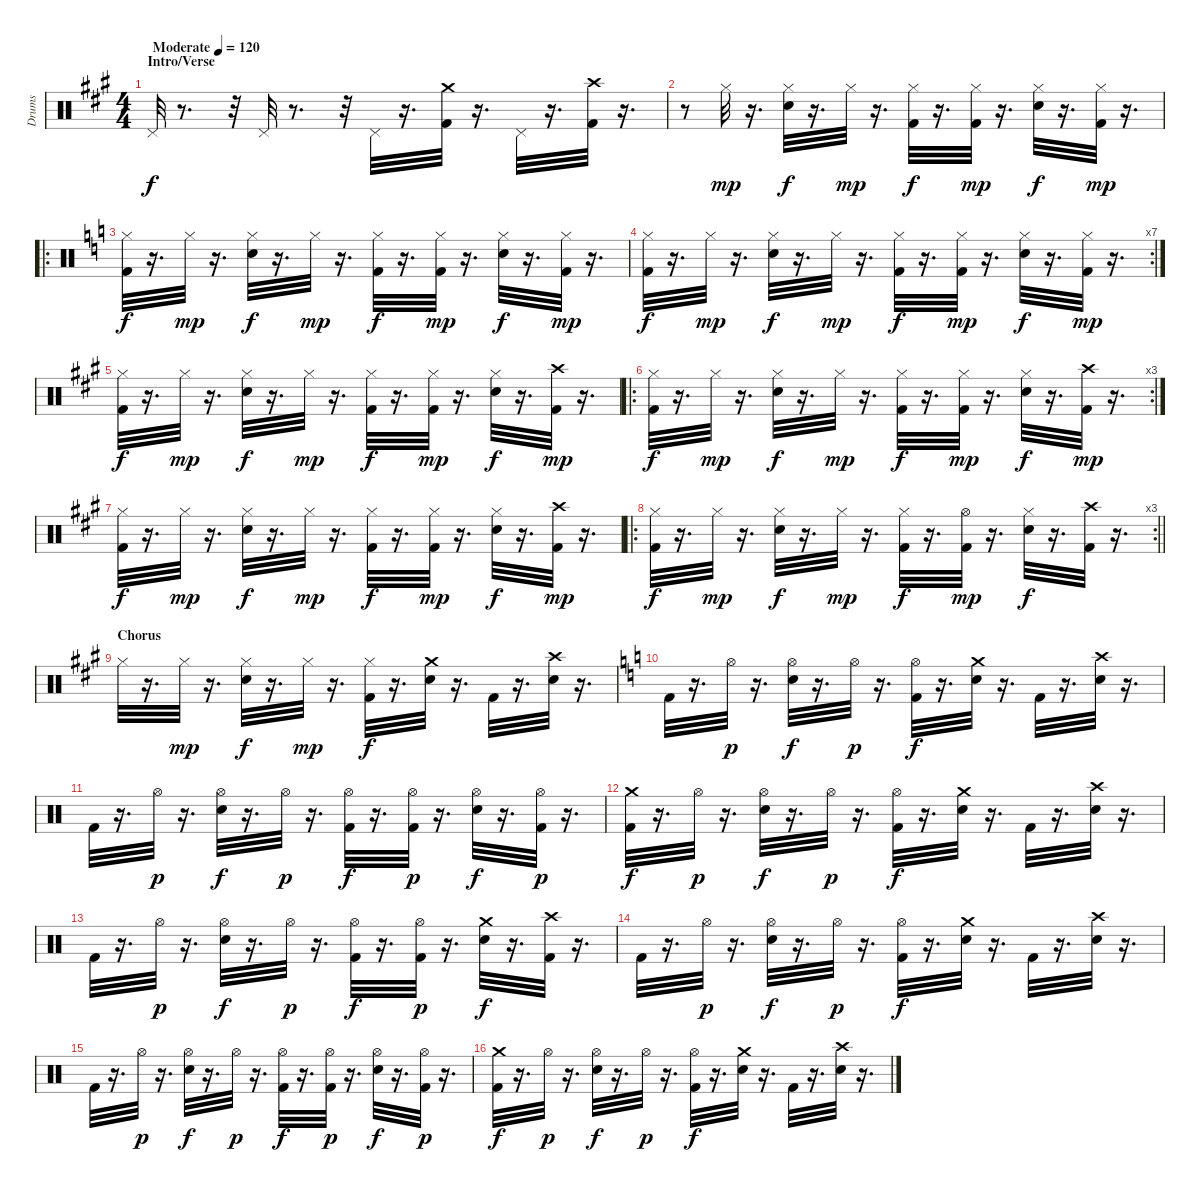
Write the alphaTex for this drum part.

\track ("Drums" "Drums") {instrument percussion}
\staff {score}
\articulation defaults
\ts (4 4)
\section ("" "Intro/Verse")
\tempo (120 "Moderate")
\clef neutral
\ks a "Pedal Hi-Hat (hit)".32{dy f}
r.8{d} r.32 "Pedal Hi-Hat (hit)".32 r.8{d} r.32 "Pedal Hi-Hat (hit)".32 r.16{d} ("Crash medium (hit)" "Kick (hit) 2").32 r.16{d} "Pedal Hi-Hat (hit)".32 r.16{d} ("Crash high (hit)" "Kick (hit) 2").32 r.16{d} |
r.8 "Hi-Hat (closed)".32{dy mp} r.16{d} ("Hi-Hat (closed)" "Electric Snare (hit)").32{dy f} r.16{d} "Hi-Hat (closed)".32{dy mp} r.16{d} ("Hi-Hat (closed)" "Kick (hit) 2").32{dy f} r.16{d} ("Hi-Hat (closed)" "Kick (hit) 2").32{dy mp} r.16{d} ("Hi-Hat (closed)" "Electric Snare (hit)").32{dy f} r.16{d} ("Hi-Hat (closed)" "Kick (hit) 2").32{dy mp} r.16{d} |
\ro
\ks c
("Hi-Hat (closed)" "Kick (hit) 2").32{dy f} r.16{d} "Hi-Hat (closed)".32{dy mp} r.16{d} ("Hi-Hat (closed)" "Electric Snare (hit)").32{dy f} r.16{d} "Hi-Hat (closed)".32{dy mp} r.16{d} ("Hi-Hat (closed)" "Kick (hit) 2").32{dy f} r.16{d} ("Hi-Hat (closed)" "Kick (hit) 2").32{dy mp} r.16{d} ("Hi-Hat (closed)" "Electric Snare (hit)").32{dy f} r.16{d} ("Hi-Hat (closed)" "Kick (hit) 2").32{dy mp} r.16{d} |
\rc 7
("Hi-Hat (closed)" "Kick (hit) 2").32{dy f} r.16{d} "Hi-Hat (closed)".32{dy mp} r.16{d} ("Hi-Hat (closed)" "Electric Snare (hit)").32{dy f} r.16{d} "Hi-Hat (closed)".32{dy mp} r.16{d} ("Hi-Hat (closed)" "Kick (hit) 2").32{dy f} r.16{d} ("Hi-Hat (closed)" "Kick (hit) 2").32{dy mp} r.16{d} ("Hi-Hat (closed)" "Electric Snare (hit)").32{dy f} r.16{d} ("Hi-Hat (closed)" "Kick (hit) 2").32{dy mp} r.16{d} |
\ks a
("Hi-Hat (closed)" "Kick (hit) 2").32{dy f} r.16{d} "Hi-Hat (closed)".32{dy mp} r.16{d} ("Hi-Hat (closed)" "Electric Snare (hit)").32{dy f} r.16{d} "Hi-Hat (closed)".32{dy mp} r.16{d} ("Hi-Hat (closed)" "Kick (hit) 2").32{dy f} r.16{d} ("Hi-Hat (closed)" "Kick (hit) 2").32{dy mp} r.16{d} ("Hi-Hat (closed)" "Electric Snare (hit)").32{dy f} r.16{d} ("Crash high (hit)" "Kick (hit) 2").32{dy mp} r.16{d} |
\ro
\rc 3
("Hi-Hat (closed)" "Kick (hit) 2").32{dy f} r.16{d} "Hi-Hat (closed)".32{dy mp} r.16{d} ("Hi-Hat (closed)" "Electric Snare (hit)").32{dy f} r.16{d} "Hi-Hat (closed)".32{dy mp} r.16{d} ("Hi-Hat (closed)" "Kick (hit) 2").32{dy f} r.16{d} ("Hi-Hat (closed)" "Kick (hit) 2").32{dy mp} r.16{d} ("Hi-Hat (closed)" "Electric Snare (hit)").32{dy f} r.16{d} ("Crash high (hit)" "Kick (hit) 2").32{dy mp} r.16{d} |
("Hi-Hat (closed)" "Kick (hit) 2").32{dy f} r.16{d} "Hi-Hat (closed)".32{dy mp} r.16{d} ("Hi-Hat (closed)" "Electric Snare (hit)").32{dy f} r.16{d} "Hi-Hat (closed)".32{dy mp} r.16{d} ("Hi-Hat (closed)" "Kick (hit) 2").32{dy f} r.16{d} ("Hi-Hat (closed)" "Kick (hit) 2").32{dy mp} r.16{d} ("Hi-Hat (closed)" "Electric Snare (hit)").32{dy f} r.16{d} ("Crash high (hit)" "Kick (hit) 2").32{dy mp} r.16{d} |
\ro
\rc 3
\barLineRight lightlight
("Hi-Hat (closed)" "Kick (hit) 2").32{dy f} r.16{d} "Hi-Hat (closed)".32{dy mp} r.16{d} ("Hi-Hat (closed)" "Electric Snare (hit)").32{dy f} r.16{d} "Hi-Hat (closed)".32{dy mp} r.16{d} ("Hi-Hat (closed)" "Kick (hit) 2").32{dy f} r.16{d} ("Hi-Hat (open)" "Kick (hit) 2").32{dy mp} r.16{d} ("Hi-Hat (closed)" "Electric Snare (hit)").32{dy f} r.16{d} ("Crash high (hit)" "Kick (hit) 2").32 r.16{d} |
\section ("" "Chorus")
"Hi-Hat (closed)".32 r.16{d} "Hi-Hat (closed)".32{dy mp} r.16{d} ("Hi-Hat (closed)" "Electric Snare (hit)").32{dy f} r.16{d} "Hi-Hat (closed)".32{dy mp} r.16{d} ("Hi-Hat (closed)" "Kick (hit) 2").32{dy f} r.16{d} ("Crash medium (hit)" "Electric Snare (hit)").32 r.16{d} "Kick (hit) 2".32 r.16{d} ("Crash high (hit)" "Electric Snare (hit)").32 r.16{d} |
\ks c "Kick (hit) 2".32
r.16{d} "Hi-Hat (open)".32{dy p} r.16{d} ("Hi-Hat (open)" "Electric Snare (hit)").32{dy f} r.16{d} "Hi-Hat (open)".32{dy p} r.16{d} ("Hi-Hat (open)" "Kick (hit) 2").32{dy f} r.16{d} ("Crash medium (hit)" "Electric Snare (hit)").32 r.16{d} "Kick (hit) 2".32 r.16{d} ("Crash high (hit)" "Electric Snare (hit)").32 r.16{d} |
"Kick (hit) 2".32 r.16{d} "Hi-Hat (open)".32{dy p} r.16{d} ("Hi-Hat (open)" "Electric Snare (hit)").32{dy f} r.16{d} "Hi-Hat (open)".32{dy p} r.16{d} ("Hi-Hat (open)" "Kick (hit) 2").32{dy f} r.16{d} ("Hi-Hat (open)" "Kick (hit) 2").32{dy p} r.16{d} ("Hi-Hat (open)" "Electric Snare (hit)").32{dy f} r.16{d} ("Hi-Hat (open)" "Kick (hit) 2").32{dy p} r.16{d} |
("Crash medium (hit)" "Kick (hit) 2").32{dy f} r.16{d} "Hi-Hat (open)".32{dy p} r.16{d} ("Hi-Hat (open)" "Electric Snare (hit)").32{dy f} r.16{d} "Hi-Hat (open)".32{dy p} r.16{d} ("Hi-Hat (open)" "Kick (hit) 2").32{dy f} r.16{d} ("Crash medium (hit)" "Electric Snare (hit)").32 r.16{d} "Kick (hit) 2".32 r.16{d} ("Crash high (hit)" "Electric Snare (hit)").32 r.16{d} |
"Kick (hit) 2".32 r.16{d} "Hi-Hat (open)".32{dy p} r.16{d} ("Hi-Hat (open)" "Electric Snare (hit)").32{dy f} r.16{d} "Hi-Hat (open)".32{dy p} r.16{d} ("Kick (hit) 2" "Hi-Hat (open)").32{dy f} r.16{d} ("Hi-Hat (open)" "Kick (hit) 2").32{dy p} r.16{d} ("Crash medium (hit)" "Electric Snare (hit)").32{dy f} r.16{d} ("Crash high (hit)" "Kick (hit) 2").32 r.16{d} |
"Kick (hit) 2".32 r.16{d} "Hi-Hat (open)".32{dy p} r.16{d} ("Hi-Hat (open)" "Electric Snare (hit)").32{dy f} r.16{d} "Hi-Hat (open)".32{dy p} r.16{d} ("Hi-Hat (open)" "Kick (hit) 2").32{dy f} r.16{d} ("Crash medium (hit)" "Electric Snare (hit)").32 r.16{d} "Kick (hit) 2".32 r.16{d} ("Crash high (hit)" "Electric Snare (hit)").32 r.16{d} |
"Kick (hit) 2".32 r.16{d} "Hi-Hat (open)".32{dy p} r.16{d} ("Hi-Hat (open)" "Electric Snare (hit)").32{dy f} r.16{d} "Hi-Hat (open)".32{dy p} r.16{d} ("Hi-Hat (open)" "Kick (hit) 2").32{dy f} r.16{d} ("Hi-Hat (open)" "Kick (hit) 2").32{dy p} r.16{d} ("Hi-Hat (open)" "Electric Snare (hit)").32{dy f} r.16{d} ("Hi-Hat (open)" "Kick (hit) 2").32{dy p} r.16{d} |
("Crash medium (hit)" "Kick (hit) 2").32{dy f} r.16{d} "Hi-Hat (open)".32{dy p} r.16{d} ("Hi-Hat (open)" "Electric Snare (hit)").32{dy f} r.16{d} "Hi-Hat (open)".32{dy p} r.16{d} ("Hi-Hat (open)" "Kick (hit) 2").32{dy f} r.16{d} ("Crash medium (hit)" "Electric Snare (hit)").32 r.16{d} "Kick (hit) 2".32 r.16{d} ("Crash high (hit)" "Electric Snare (hit)").32 r.16{d}
